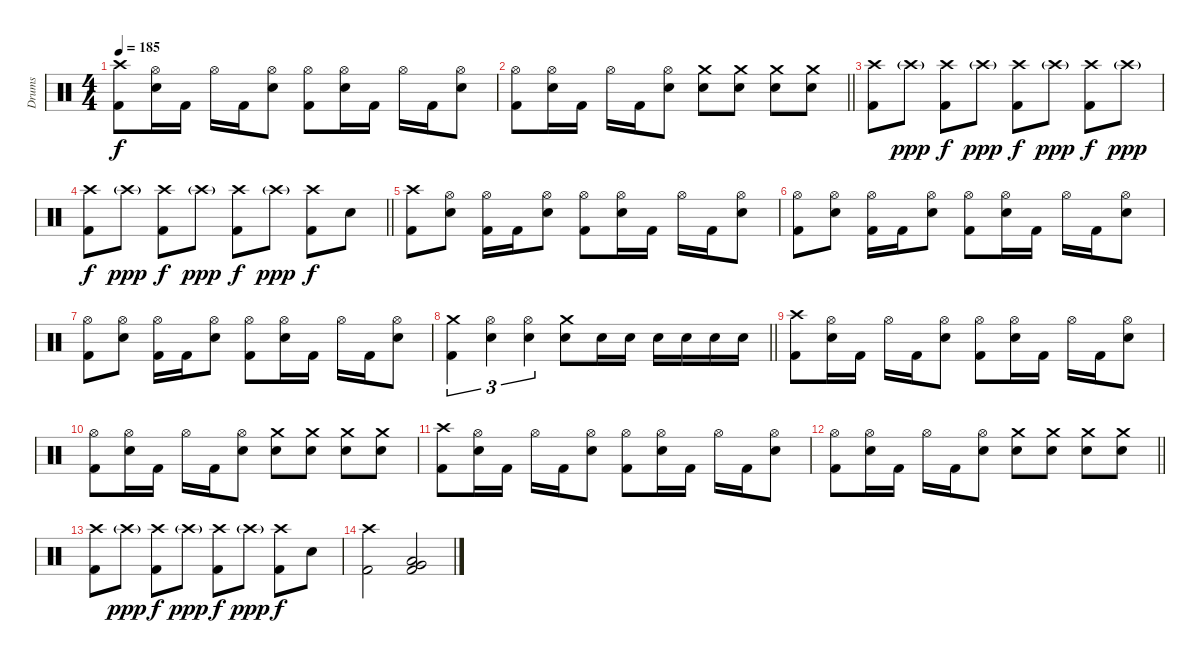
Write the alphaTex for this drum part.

\track ("Drums" "Drums") {instrument percussion}
\staff {score}
\articulation defaults
\ts (4 4)
\tempo 185
\clef neutral
\ks c
("Crash high (hit)" "Kick (hit) 2").8{dy f} ("Hi-Hat (open)" "Electric Snare (hit)").16 "Kick (hit) 2".16 "Hi-Hat (open)".16 "Kick (hit) 2".16 ("Hi-Hat (open)" "Electric Snare (hit)").8 ("Hi-Hat (open)" "Kick (hit) 2").8 ("Hi-Hat (open)" "Electric Snare (hit)").16 "Kick (hit) 2".16 "Hi-Hat (open)".16 "Kick (hit) 2".16 ("Hi-Hat (open)" "Electric Snare (hit)").8 |
\barLineRight lightlight
("Hi-Hat (open)" "Kick (hit) 2").8 ("Hi-Hat (open)" "Electric Snare (hit)").16 "Kick (hit) 2".16 "Hi-Hat (open)".16 "Kick (hit) 2".16 ("Hi-Hat (open)" "Electric Snare (hit)").8 ("Crash medium (hit)" "Electric Snare (hit)").8 ("Crash medium (hit)" "Electric Snare (hit)").8 ("Crash medium (hit)" "Electric Snare (hit)").8 ("Crash medium (hit)" "Electric Snare (hit)").8 |
\section ("" "")
("Crash high (hit)" "Kick (hit) 2").8 "Crash high (hit)"{g}.8{dy ppp} ("Crash high (hit)" "Kick (hit) 2").8{dy f} "Crash high (hit)"{g}.8{dy ppp} ("Crash high (hit)" "Kick (hit) 2").8{dy f} "Crash high (hit)"{g}.8{dy ppp} ("Crash high (hit)" "Kick (hit) 2").8{dy f} "Crash high (hit)"{g}.8{dy ppp} |
\barLineRight lightlight
("Crash high (hit)" "Kick (hit) 2").8{dy f} "Crash high (hit)"{g}.8{dy ppp} ("Crash high (hit)" "Kick (hit) 2").8{dy f} "Crash high (hit)"{g}.8{dy ppp} ("Crash high (hit)" "Kick (hit) 2").8{dy f} "Crash high (hit)"{g}.8{dy ppp} ("Crash high (hit)" "Kick (hit) 2").8{dy f} "Electric Snare (hit)".8 |
\section ("" "")
("Crash high (hit)" "Kick (hit) 2").8 ("Hi-Hat (open)" "Electric Snare (hit)").8 ("Hi-Hat (open)" "Kick (hit) 2").16 "Kick (hit) 2".16 ("Hi-Hat (open)" "Electric Snare (hit)").8 ("Hi-Hat (open)" "Kick (hit) 2").8 ("Hi-Hat (open)" "Electric Snare (hit)").16 "Kick (hit) 2".16 "Hi-Hat (open)".16 "Kick (hit) 2".16 ("Hi-Hat (open)" "Electric Snare (hit)").8 |
("Hi-Hat (open)" "Kick (hit) 2").8 ("Hi-Hat (open)" "Electric Snare (hit)").8 ("Hi-Hat (open)" "Kick (hit) 2").16 "Kick (hit) 2".16 ("Hi-Hat (open)" "Electric Snare (hit)").8 ("Hi-Hat (open)" "Kick (hit) 2").8 ("Hi-Hat (open)" "Electric Snare (hit)").16 "Kick (hit) 2".16 "Hi-Hat (open)".16 "Kick (hit) 2".16 ("Hi-Hat (open)" "Electric Snare (hit)").8 |
("Hi-Hat (open)" "Kick (hit) 2").8 ("Hi-Hat (open)" "Electric Snare (hit)").8 ("Hi-Hat (open)" "Kick (hit) 2").16 "Kick (hit) 2".16 ("Hi-Hat (open)" "Electric Snare (hit)").8 ("Hi-Hat (open)" "Kick (hit) 2").8 ("Hi-Hat (open)" "Electric Snare (hit)").16 "Kick (hit) 2".16 "Hi-Hat (open)".16 "Kick (hit) 2".16 ("Hi-Hat (open)" "Electric Snare (hit)").8 |
\barLineRight lightlight
("Crash medium (hit)" "Kick (hit) 2").4{tu (3 2)} ("Hi-Hat (open)" "Electric Snare (hit)").4{tu (3 2)} ("Hi-Hat (open)" "Electric Snare (hit)").4{tu (3 2)} ("Crash medium (hit)" "Electric Snare (hit)").8 "Electric Snare (hit)".16 "Electric Snare (hit)".16 "Electric Snare (hit)".16 "Electric Snare (hit)".16 "Electric Snare (hit)".16 "Electric Snare (hit)".16 |
\section ("" "")
("Crash high (hit)" "Kick (hit) 2").8 ("Hi-Hat (open)" "Electric Snare (hit)").16 "Kick (hit) 2".16 "Hi-Hat (open)".16 "Kick (hit) 2".16 ("Hi-Hat (open)" "Electric Snare (hit)").8 ("Hi-Hat (open)" "Kick (hit) 2").8 ("Hi-Hat (open)" "Electric Snare (hit)").16 "Kick (hit) 2".16 "Hi-Hat (open)".16 "Kick (hit) 2".16 ("Hi-Hat (open)" "Electric Snare (hit)").8 |
("Hi-Hat (open)" "Kick (hit) 2").8 ("Hi-Hat (open)" "Electric Snare (hit)").16 "Kick (hit) 2".16 "Hi-Hat (open)".16 "Kick (hit) 2".16 ("Hi-Hat (open)" "Electric Snare (hit)").8 ("Crash medium (hit)" "Electric Snare (hit)").8 ("Crash medium (hit)" "Electric Snare (hit)").8 ("Crash medium (hit)" "Electric Snare (hit)").8 ("Crash medium (hit)" "Electric Snare (hit)").8 |
("Crash high (hit)" "Kick (hit) 2").8 ("Hi-Hat (open)" "Electric Snare (hit)").16 "Kick (hit) 2".16 "Hi-Hat (open)".16 "Kick (hit) 2".16 ("Hi-Hat (open)" "Electric Snare (hit)").8 ("Hi-Hat (open)" "Kick (hit) 2").8 ("Hi-Hat (open)" "Electric Snare (hit)").16 "Kick (hit) 2".16 "Hi-Hat (open)".16 "Kick (hit) 2".16 ("Hi-Hat (open)" "Electric Snare (hit)").8 |
\barLineRight lightlight
("Hi-Hat (open)" "Kick (hit) 2").8 ("Hi-Hat (open)" "Electric Snare (hit)").16 "Kick (hit) 2".16 "Hi-Hat (open)".16 "Kick (hit) 2".16 ("Hi-Hat (open)" "Electric Snare (hit)").8 ("Crash medium (hit)" "Electric Snare (hit)").8 ("Crash medium (hit)" "Electric Snare (hit)").8 ("Crash medium (hit)" "Electric Snare (hit)").8 ("Crash medium (hit)" "Electric Snare (hit)").8 |
\section ("" "")
("Crash high (hit)" "Kick (hit) 2").8 "Crash high (hit)"{g}.8{dy ppp} ("Crash high (hit)" "Kick (hit) 2").8{dy f} "Crash high (hit)"{g}.8{dy ppp} ("Crash high (hit)" "Kick (hit) 2").8{dy f} "Crash high (hit)"{g}.8{dy ppp} ("Crash high (hit)" "Kick (hit) 2").8{dy f} "Electric Snare (hit)".8 |
("Crash high (hit)" "Kick (hit) 2").2 ("Very Low Tom (hit)" "Low Floor Tom (hit)" "Kick (hit) 2").2
